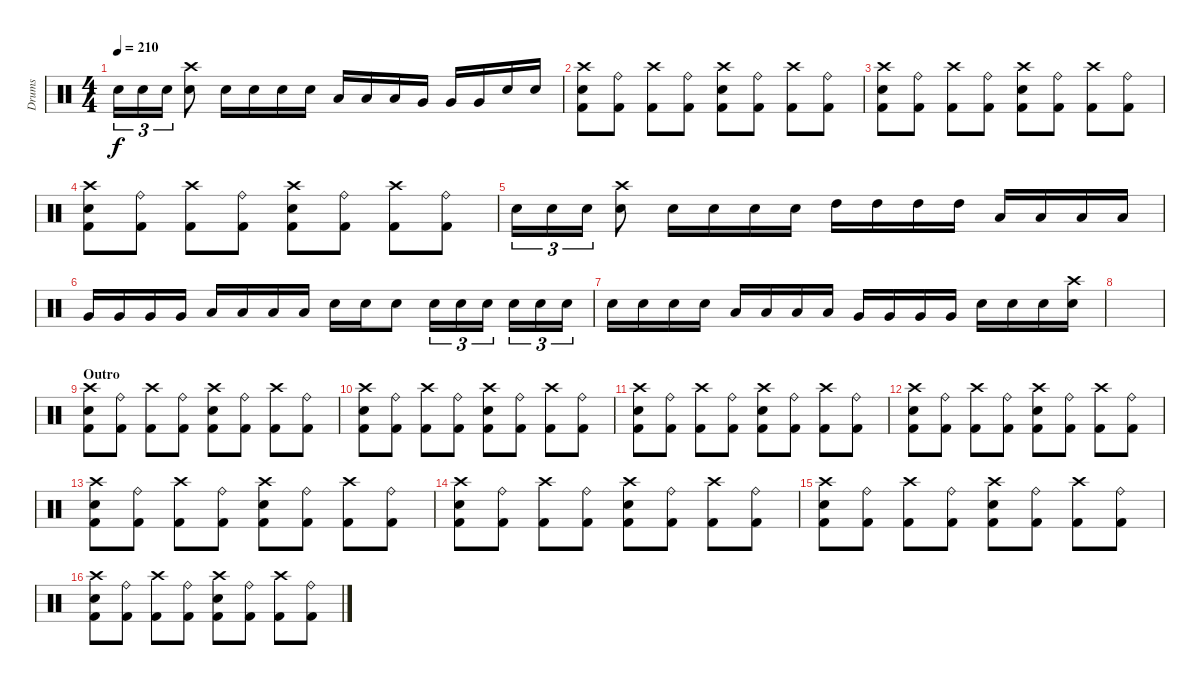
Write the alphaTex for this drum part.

\track ("Drums" "Drums") {instrument percussion}
\staff {score}
\articulation defaults
\ts (4 4)
\tempo 210
\clef neutral
\ks c "Electric Snare (hit)".16{tu (3 2) dy f} "Electric Snare (hit)".16{tu (3 2)} "Electric Snare (hit)".16{tu (3 2)}
("Electric Snare (hit)" "Crash high (hit)").8 "Electric Snare (hit)".16 "Electric Snare (hit)".16 "Electric Snare (hit)".16 "Electric Snare (hit)".16 "Low Tom (hit)".16 "Low Tom (hit)".16 "Low Tom (hit)".16 "Very Low Tom (hit)".16 "Very Low Tom (hit)".16 "Very Low Tom (hit)".16 "Electric Snare (hit)".16 "Electric Snare (hit)".16 |
("Kick (hit) 2" "Electric Snare (hit)" "Crash high (hit)").8 ("Kick (hit) 2" "Ride (bell)").8 ("Kick (hit) 2" "Crash high (hit)").8 ("Kick (hit) 2" "Ride (bell)").8 ("Kick (hit) 2" "Crash high (hit)" "Electric Snare (hit)").8 ("Kick (hit) 2" "Ride (bell)").8 ("Kick (hit) 2" "Crash high (hit)").8 ("Kick (hit) 2" "Ride (bell)").8 |
("Kick (hit) 2" "Electric Snare (hit)" "Crash high (hit)").8 ("Kick (hit) 2" "Ride (bell)").8 ("Kick (hit) 2" "Crash high (hit)").8 ("Kick (hit) 2" "Ride (bell)").8 ("Kick (hit) 2" "Crash high (hit)" "Electric Snare (hit)").8 ("Kick (hit) 2" "Ride (bell)").8 ("Kick (hit) 2" "Crash high (hit)").8 ("Kick (hit) 2" "Ride (bell)").8 |
("Kick (hit) 2" "Electric Snare (hit)" "Crash high (hit)").8 ("Kick (hit) 2" "Ride (bell)").8 ("Kick (hit) 2" "Crash high (hit)").8 ("Kick (hit) 2" "Ride (bell)").8 ("Kick (hit) 2" "Crash high (hit)" "Electric Snare (hit)").8 ("Kick (hit) 2" "Ride (bell)").8 ("Kick (hit) 2" "Crash high (hit)").8 ("Kick (hit) 2" "Ride (bell)").8 |
"Electric Snare (hit)".16{tu (3 2)} "Electric Snare (hit)".16{tu (3 2)} "Electric Snare (hit)".16{tu (3 2)} ("Electric Snare (hit)" "Crash high (hit)").8 "Electric Snare (hit)".16 "Electric Snare (hit)".16 "Electric Snare (hit)".16 "Electric Snare (hit)".16 "High Tom (hit)".16 "High Tom (hit)".16 "High Tom (hit)".16 "High Tom (hit)".16 "Low Tom (hit)".16 "Low Tom (hit)".16 "Low Tom (hit)".16 "Low Tom (hit)".16 |
"Very Low Tom (hit)".16 "Very Low Tom (hit)".16 "Very Low Tom (hit)".16 "Very Low Tom (hit)".16 "Low Floor Tom (hit)".16 "Low Floor Tom (hit)".16 "Low Floor Tom (hit)".16 "Low Floor Tom (hit)".16 "Electric Snare (hit)".16 "Electric Snare (hit)".16 "Electric Snare (hit)".8 "Electric Snare (hit)".16{tu (3 2)} "Electric Snare (hit)".16{tu (3 2)} "Electric Snare (hit)".16{tu (3 2)} "Electric Snare (hit)".16{tu (3 2)} "Electric Snare (hit)".16{tu (3 2)} "Electric Snare (hit)".16{tu (3 2)} |
"Electric Snare (hit)".16 "Electric Snare (hit)".16 "Electric Snare (hit)".16 "Electric Snare (hit)".16 "Low Tom (hit)".16 "Low Tom (hit)".16 "Low Tom (hit)".16 "Low Tom (hit)".16 "Very Low Tom (hit)".16 "Very Low Tom (hit)".16 "Very Low Tom (hit)".16 "Very Low Tom (hit)".16 "Electric Snare (hit)".16 "Electric Snare (hit)".16 "Electric Snare (hit)".16 ("Electric Snare (hit)" "Crash high (hit)").16 |
|
\section ("" "Outro")
("Kick (hit) 2" "Electric Snare (hit)" "Crash high (hit)").8 ("Kick (hit) 2" "Ride (bell)").8 ("Kick (hit) 2" "Crash high (hit)").8 ("Kick (hit) 2" "Ride (bell)").8 ("Kick (hit) 2" "Crash high (hit)" "Electric Snare (hit)").8 ("Kick (hit) 2" "Ride (bell)").8 ("Kick (hit) 2" "Crash high (hit)").8 ("Kick (hit) 2" "Ride (bell)").8 |
("Kick (hit) 2" "Electric Snare (hit)" "Crash high (hit)").8 ("Kick (hit) 2" "Ride (bell)").8 ("Kick (hit) 2" "Crash high (hit)").8 ("Kick (hit) 2" "Ride (bell)").8 ("Kick (hit) 2" "Crash high (hit)" "Electric Snare (hit)").8 ("Kick (hit) 2" "Ride (bell)").8 ("Kick (hit) 2" "Crash high (hit)").8 ("Kick (hit) 2" "Ride (bell)").8 |
("Kick (hit) 2" "Electric Snare (hit)" "Crash high (hit)").8 ("Kick (hit) 2" "Ride (bell)").8 ("Kick (hit) 2" "Crash high (hit)").8 ("Kick (hit) 2" "Ride (bell)").8 ("Kick (hit) 2" "Crash high (hit)" "Electric Snare (hit)").8 ("Kick (hit) 2" "Ride (bell)").8 ("Kick (hit) 2" "Crash high (hit)").8 ("Kick (hit) 2" "Ride (bell)").8 |
("Kick (hit) 2" "Electric Snare (hit)" "Crash high (hit)").8{volume 0} ("Kick (hit) 2" "Ride (bell)").8 ("Kick (hit) 2" "Crash high (hit)").8 ("Kick (hit) 2" "Ride (bell)").8 ("Kick (hit) 2" "Crash high (hit)" "Electric Snare (hit)").8 ("Kick (hit) 2" "Ride (bell)").8 ("Kick (hit) 2" "Crash high (hit)").8 ("Kick (hit) 2" "Ride (bell)").8 |
("Kick (hit) 2" "Electric Snare (hit)" "Crash high (hit)").8 ("Kick (hit) 2" "Ride (bell)").8 ("Kick (hit) 2" "Crash high (hit)").8 ("Kick (hit) 2" "Ride (bell)").8 ("Kick (hit) 2" "Crash high (hit)" "Electric Snare (hit)").8 ("Kick (hit) 2" "Ride (bell)").8 ("Kick (hit) 2" "Crash high (hit)").8 ("Kick (hit) 2" "Ride (bell)").8 |
("Kick (hit) 2" "Electric Snare (hit)" "Crash high (hit)").8 ("Kick (hit) 2" "Ride (bell)").8 ("Kick (hit) 2" "Crash high (hit)").8 ("Kick (hit) 2" "Ride (bell)").8 ("Kick (hit) 2" "Crash high (hit)" "Electric Snare (hit)").8 ("Kick (hit) 2" "Ride (bell)").8 ("Kick (hit) 2" "Crash high (hit)").8 ("Kick (hit) 2" "Ride (bell)").8 |
("Kick (hit) 2" "Electric Snare (hit)" "Crash high (hit)").8 ("Kick (hit) 2" "Ride (bell)").8 ("Kick (hit) 2" "Crash high (hit)").8 ("Kick (hit) 2" "Ride (bell)").8 ("Kick (hit) 2" "Crash high (hit)" "Electric Snare (hit)").8 ("Kick (hit) 2" "Ride (bell)").8 ("Kick (hit) 2" "Crash high (hit)").8 ("Kick (hit) 2" "Ride (bell)").8 |
("Kick (hit) 2" "Electric Snare (hit)" "Crash high (hit)").8 ("Kick (hit) 2" "Ride (bell)").8 ("Kick (hit) 2" "Crash high (hit)").8 ("Kick (hit) 2" "Ride (bell)").8 ("Kick (hit) 2" "Crash high (hit)" "Electric Snare (hit)").8 ("Kick (hit) 2" "Ride (bell)").8 ("Kick (hit) 2" "Crash high (hit)").8 ("Kick (hit) 2" "Ride (bell)").8
